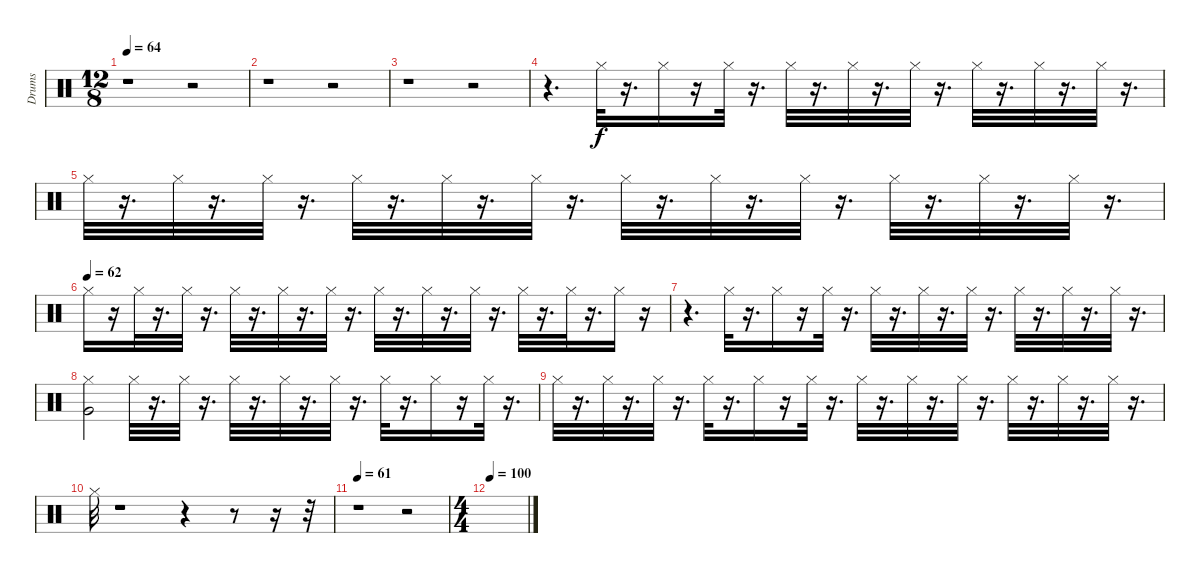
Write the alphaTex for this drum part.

\track ("Drums" "Drums") {instrument percussion}
\staff {score}
\articulation defaults
\ts (12 8)
\tempo 64
\clef neutral
\ks c
r.1{dy f} r.2 |
r.1 r.2 |
r.1 r.2 |
r.4{d} "Hi-Hat (closed)".32{volume 11 balance 5} r.16{d} "Hi-Hat (closed)".16 r.16 "Hi-Hat (closed)".32 r.16{d} "Hi-Hat (closed)".32 r.16{d} "Hi-Hat (closed)".32 r.16{d} "Hi-Hat (closed)".32 r.16{d} "Hi-Hat (closed)".32 r.16{d} "Hi-Hat (closed)".32 r.16{d} "Hi-Hat (closed)".32 r.16{d} |
"Hi-Hat (closed)".32 r.16{d} "Hi-Hat (closed)".32 r.16{d} "Hi-Hat (closed)".32{volume 9} r.16{d} "Hi-Hat (closed)".32 r.16{d} "Hi-Hat (closed)".32 r.16{d} "Hi-Hat (closed)".32 r.16{d} "Hi-Hat (closed)".32 r.16{d} "Hi-Hat (closed)".32 r.16{d} "Hi-Hat (closed)".32 r.16{d} "Hi-Hat (closed)".32 r.16{d} "Hi-Hat (closed)".32 r.16{d} "Hi-Hat (closed)".32 r.16{d} |
\tempo (62)
"Hi-Hat (closed)".16 r.16 "Hi-Hat (closed)".32 r.16{d} "Hi-Hat (closed)".32 r.16{d} "Hi-Hat (closed)".32 r.16{d} "Hi-Hat (closed)".32 r.16{d} "Hi-Hat (closed)".32 r.16{d} "Hi-Hat (closed)".32 r.16{d} "Hi-Hat (closed)".32 r.16{d} "Hi-Hat (closed)".32 r.16{d} "Hi-Hat (closed)".32 r.16{d} "Hi-Hat (closed)".32 r.16{d} "Hi-Hat (closed)".16 r.16 |
r.4{d} "Hi-Hat (closed)".32 r.16{d} "Hi-Hat (closed)".16 r.16 "Hi-Hat (closed)".32 r.16{d} "Hi-Hat (closed)".32 r.16{d} "Hi-Hat (closed)".32 r.16{d} "Hi-Hat (closed)".32 r.16{d} "Hi-Hat (closed)".32 r.16{d} "Hi-Hat (closed)".32 r.16{d} "Hi-Hat (closed)".32 r.16{d} |
("Hi-Hat (closed)" "Very Low Tom (hit)").2 "Hi-Hat (closed)".32 r.16{d} "Hi-Hat (closed)".32 r.16{d} "Hi-Hat (closed)".32 r.16{d} "Hi-Hat (closed)".32 r.16{d} "Hi-Hat (closed)".32 r.16{d} "Hi-Hat (closed)".32 r.16{d} "Hi-Hat (closed)".16 r.16 "Hi-Hat (closed)".32 r.16{d} |
"Hi-Hat (closed)".32 r.16{d} "Hi-Hat (closed)".32 r.16{d} "Hi-Hat (closed)".32 r.16{d} "Hi-Hat (closed)".32 r.16{d} "Hi-Hat (closed)".16 r.16 "Hi-Hat (closed)".32 r.16{d} "Hi-Hat (closed)".32 r.16{d} "Hi-Hat (closed)".32 r.16{d} "Hi-Hat (closed)".32 r.16{d} "Hi-Hat (closed)".32 r.16{d} "Hi-Hat (closed)".32 r.16{d} "Hi-Hat (closed)".32 r.16{d} |
"Hi-Hat (closed)".32 r.1 r.4 r.8 r.16 r.32 |
\tempo 61
r.1 r.2 |
\ts (4 4)
\tempo 100
